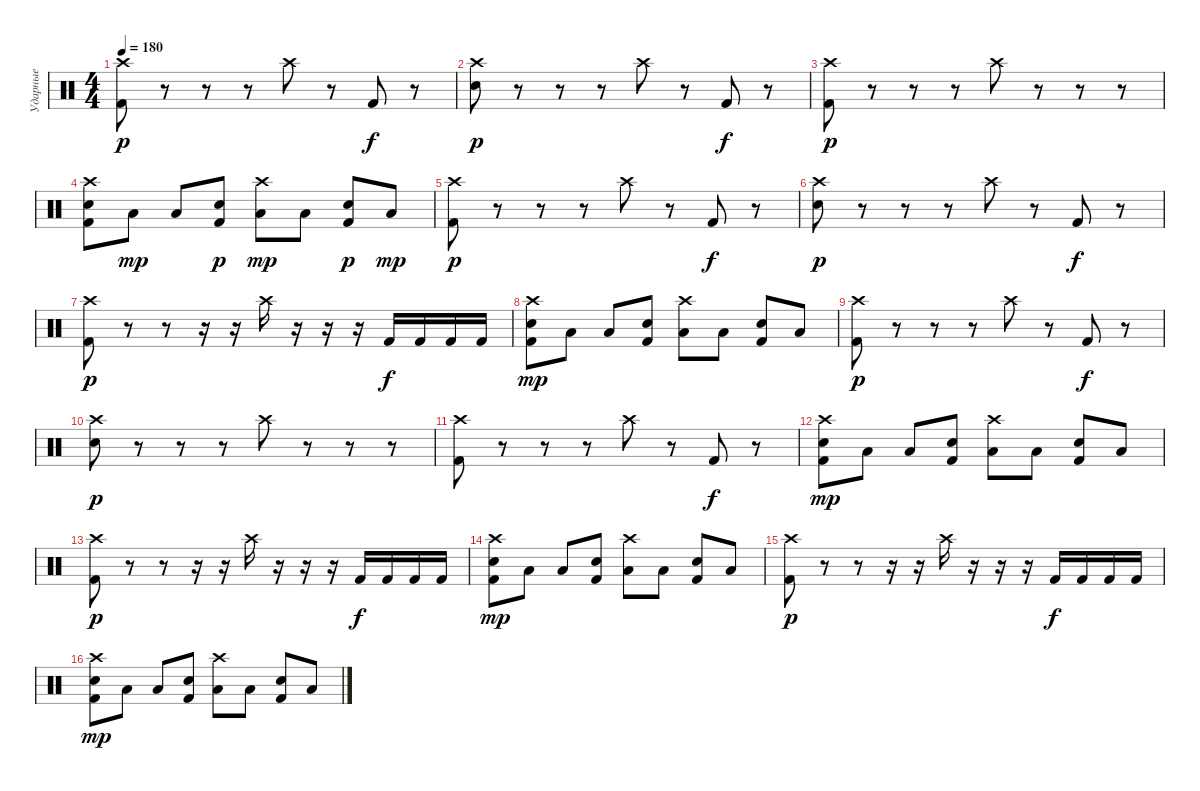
\track ("Ударные" "Ударные") {instrument percussion}
\staff {score}
\articulation defaults
\ts (4 4)
\tempo 180
\clef neutral
\ks c
("Crash high (hit)" "Kick (hit) 2").8{dy p} r.8 r.8 r.8 "Crash high (hit)".8 r.8 "Kick (hit) 2".8{dy f} r.8 |
("Crash high (hit)" "Snare (hit) 2").8{dy p} r.8 r.8 r.8 "Crash high (hit)".8 r.8 "Kick (hit) 2".8{dy f} r.8 |
("Crash high (hit)" "Kick (hit) 2").8{dy p} r.8 r.8 r.8 "Crash high (hit)".8 r.8 r.8 r.8 |
("Crash high (hit)" "Snare (hit) 2" "Kick (hit) 2").8 "Low Tom (hit)".8{dy mp} "Low Tom (hit)".8 ("Snare (hit) 2" "Kick (hit) 2").8{dy p} ("Crash high (hit)" "Low Tom (hit)").8{dy mp} "Low Tom (hit)".8 ("Snare (hit) 2" "Kick (hit) 2").8{dy p} "Low Tom (hit)".8{dy mp} |
("Crash high (hit)" "Kick (hit) 2").8{dy p} r.8 r.8 r.8 "Crash high (hit)".8 r.8 "Kick (hit) 2".8{dy f} r.8 |
("Crash high (hit)" "Snare (hit) 2").8{dy p} r.8 r.8 r.8 "Crash high (hit)".8 r.8 "Kick (hit) 2".8{dy f} r.8 |
("Crash high (hit)" "Kick (hit) 2").8{dy p} r.8 r.8 r.16 r.16 "Crash high (hit)".16 r.16 r.16 r.16 "Kick (hit) 2".16{dy f} "Kick (hit) 2".16 "Kick (hit) 2".16 "Kick (hit) 2".16 |
("Crash high (hit)" "Snare (hit) 2" "Kick (hit) 2").8{dy mp} "Low Tom (hit)".8 "Low Tom (hit)".8 ("Snare (hit) 2" "Kick (hit) 2").8 ("Crash high (hit)" "Low Tom (hit)").8 "Low Tom (hit)".8 ("Snare (hit) 2" "Kick (hit) 2").8 "Low Tom (hit)".8 |
("Crash high (hit)" "Kick (hit) 2").8{dy p} r.8 r.8 r.8 "Crash high (hit)".8 r.8 "Kick (hit) 2".8{dy f} r.8 |
("Crash high (hit)" "Snare (hit) 2").8{dy p} r.8 r.8 r.8 "Crash high (hit)".8 r.8 r.8 r.8 |
("Crash high (hit)" "Kick (hit) 2").8 r.8 r.8 r.8 "Crash high (hit)".8 r.8 "Kick (hit) 2".8{dy f} r.8 |
("Crash high (hit)" "Snare (hit) 2" "Kick (hit) 2").8{dy mp} "Low Tom (hit)".8 "Low Tom (hit)".8 ("Snare (hit) 2" "Kick (hit) 2").8 ("Crash high (hit)" "Low Tom (hit)").8 "Low Tom (hit)".8 ("Snare (hit) 2" "Kick (hit) 2").8 "Low Tom (hit)".8 |
("Crash high (hit)" "Kick (hit) 2").8{dy p} r.8 r.8 r.16 r.16 "Crash high (hit)".16 r.16 r.16 r.16 "Kick (hit) 2".16{dy f} "Kick (hit) 2".16 "Kick (hit) 2".16 "Kick (hit) 2".16 |
("Crash high (hit)" "Snare (hit) 2" "Kick (hit) 2").8{dy mp} "Low Tom (hit)".8 "Low Tom (hit)".8 ("Snare (hit) 2" "Kick (hit) 2").8 ("Crash high (hit)" "Low Tom (hit)").8 "Low Tom (hit)".8 ("Snare (hit) 2" "Kick (hit) 2").8 "Low Tom (hit)".8 |
("Crash high (hit)" "Kick (hit) 2").8{dy p} r.8 r.8 r.16 r.16 "Crash high (hit)".16 r.16 r.16 r.16 "Kick (hit) 2".16{dy f} "Kick (hit) 2".16 "Kick (hit) 2".16 "Kick (hit) 2".16 |
("Crash high (hit)" "Snare (hit) 2" "Kick (hit) 2").8{dy mp} "Low Tom (hit)".8 "Low Tom (hit)".8 ("Snare (hit) 2" "Kick (hit) 2").8 ("Crash high (hit)" "Low Tom (hit)").8 "Low Tom (hit)".8 ("Snare (hit) 2" "Kick (hit) 2").8 "Low Tom (hit)".8
